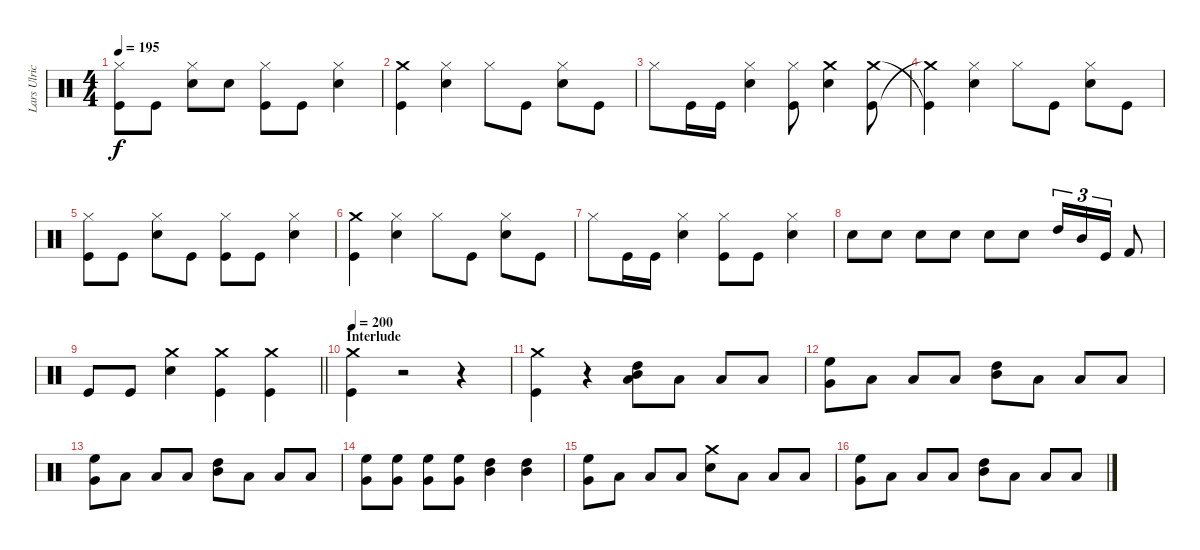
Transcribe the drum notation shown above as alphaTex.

\track ("Lars Ulrich (Drums)" "Lars Ulric") {instrument percussion}
\staff {score}
\articulation defaults
\ts (4 4)
\tempo 195
\clef neutral
\ks c
("Hi-Hat (closed)" "Kick (hit)").8{dy f} "Kick (hit)".8 ("Snare (hit) 2" "Hi-Hat (closed)").8 "Snare (hit) 2".8 ("Hi-Hat (closed)" "Kick (hit)").8 "Kick (hit)".8 ("Snare (hit) 2" "Hi-Hat (closed)").4 |
("Kick (hit)" "Crash medium (hit)").4 ("Hi-Hat (closed)" "Snare (hit) 2").4 "Hi-Hat (closed)".8 "Kick (hit)".8 ("Snare (hit) 2" "Hi-Hat (closed)").8 "Kick (hit)".8 |
"Hi-Hat (closed)".8 "Kick (hit)".16 "Kick (hit)".16 ("Snare (hit) 2" "Hi-Hat (closed)").4 ("Kick (hit)" "Hi-Hat (closed)").8 ("Snare (hit) 2" "Crash medium (hit)").4 ("Crash medium (hit)" "Kick (hit)").8 |
("Kick (hit)"{t} "Crash medium (hit)"{t}).4 ("Hi-Hat (closed)" "Snare (hit) 2").4 "Hi-Hat (closed)".8 "Kick (hit)".8 ("Snare (hit) 2" "Hi-Hat (closed)").8 "Kick (hit)".8 |
("Kick (hit)" "Hi-Hat (closed)").8 "Kick (hit)".8 ("Snare (hit) 2" "Hi-Hat (closed)").8 "Kick (hit)".8 ("Kick (hit)" "Hi-Hat (closed)").8 "Kick (hit)".8 ("Snare (hit) 2" "Hi-Hat (closed)").4 |
("Kick (hit)" "Crash medium (hit)").4 ("Hi-Hat (closed)" "Snare (hit) 2").4 "Hi-Hat (closed)".8 "Kick (hit)".8 ("Snare (hit) 2" "Hi-Hat (closed)").8 "Kick (hit)".8 |
"Hi-Hat (closed)".8 "Kick (hit)".16 "Kick (hit)".16 ("Snare (hit) 2" "Hi-Hat (closed)").4 ("Kick (hit)" "Hi-Hat (closed)").8 "Kick (hit)".8 ("Snare (hit) 2" "Hi-Hat (closed)").4 |
"Snare (hit) 2".8 "Snare (hit) 2".8 "Snare (hit) 2".8 "Snare (hit) 2".8 "Snare (hit) 2".8 "Snare (hit) 2".8 "High Tom (hit)".16{tu (3 2)} "Mid Tom (hit)".16{tu (3 2)} "Kick (hit)".16{tu (3 2)} "Kick (hit) 2".8 |
\barLineRight lightlight "Kick (hit)".8 "Kick (hit)".8
("Snare (hit) 2" "Crash medium (hit)").4 ("Kick (hit)" "Crash medium (hit)").4 ("Kick (hit)" "Crash medium (hit)").4 |
\section ("" "Interlude")
\tempo 200
("Crash medium (hit)" "Kick (hit)").4 r.2 r.4 |
("Kick (hit)" "Crash medium (hit)").4 r.4 ("High Tom (hit)" "Mid Tom (hit)" "Low Tom (hit)").8 "Low Tom (hit)".8 "Low Tom (hit)".8 "Low Tom (hit)".8 |
("High Floor Tom (hit)" "Very Low Tom (hit)").8 "Low Tom (hit)".8 "Low Tom (hit)".8 "Low Tom (hit)".8 ("Mid Tom (hit)" "High Tom (hit)").8 "Low Tom (hit)".8 "Low Tom (hit)".8 "Low Tom (hit)".8 |
("High Floor Tom (hit)" "Very Low Tom (hit)").8 "Low Tom (hit)".8 "Low Tom (hit)".8 "Low Tom (hit)".8 ("Mid Tom (hit)" "High Tom (hit)").8 "Low Tom (hit)".8 "Low Tom (hit)".8 "Low Tom (hit)".8 |
("High Floor Tom (hit)" "Very Low Tom (hit)").8 ("High Floor Tom (hit)" "Very Low Tom (hit)").8 ("High Floor Tom (hit)" "Very Low Tom (hit)").8 ("High Floor Tom (hit)" "Very Low Tom (hit)").8 ("Mid Tom (hit)" "High Tom (hit)").4 ("Mid Tom (hit)" "High Tom (hit)").4 |
("Very Low Tom (hit)" "High Floor Tom (hit)").8 "Low Tom (hit)".8 "Low Tom (hit)".8 "Low Tom (hit)".8 ("Crash medium (hit)" "Snare (hit) 2").8 "Low Tom (hit)".8 "Low Tom (hit)".8 "Low Tom (hit)".8 |
("High Floor Tom (hit)" "Very Low Tom (hit)").8 "Low Tom (hit)".8 "Low Tom (hit)".8 "Low Tom (hit)".8 ("Mid Tom (hit)" "High Tom (hit)").8 "Low Tom (hit)".8 "Low Tom (hit)".8 "Low Tom (hit)".8
